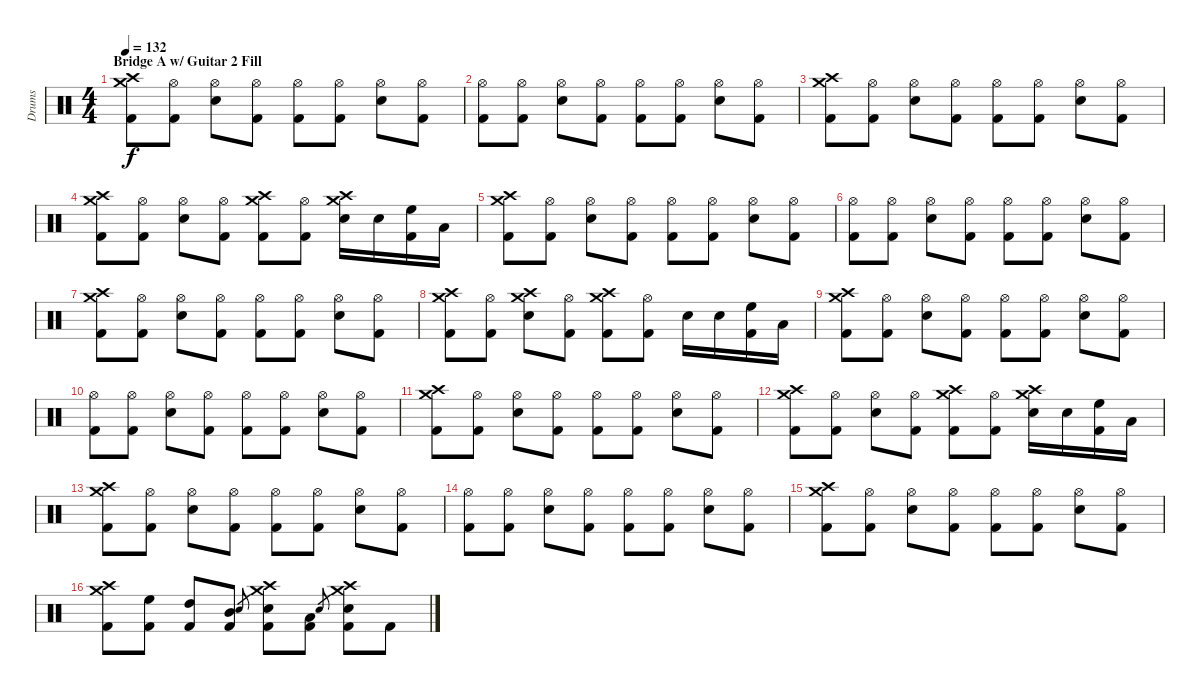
\track ("Drums" "Drums") {instrument percussion}
\staff {score}
\articulation defaults
\ts (4 4)
\section ("" "Bridge A w/ Guitar 2 Fill")
\tempo 132
\clef neutral
\ks c
("Crash medium (hit)" "Crash high (hit)" "Kick (hit) 2").8{dy f} ("Hi-Hat (open)" "Kick (hit) 2").8 ("Hi-Hat (open)" "Electric Snare (hit)").8 ("Hi-Hat (open)" "Kick (hit) 2").8 ("Hi-Hat (open)" "Kick (hit) 2").8 ("Hi-Hat (open)" "Kick (hit) 2").8 ("Hi-Hat (open)" "Electric Snare (hit)").8 ("Hi-Hat (open)" "Kick (hit) 2").8 |
("Hi-Hat (open)" "Kick (hit) 2").8 ("Hi-Hat (open)" "Kick (hit) 2").8 ("Hi-Hat (open)" "Electric Snare (hit)").8 ("Hi-Hat (open)" "Kick (hit) 2").8 ("Hi-Hat (open)" "Kick (hit) 2").8 ("Hi-Hat (open)" "Kick (hit) 2").8 ("Hi-Hat (open)" "Electric Snare (hit)").8 ("Hi-Hat (open)" "Kick (hit) 2").8 |
("Crash medium (hit)" "Crash high (hit)" "Kick (hit) 2").8 ("Hi-Hat (open)" "Kick (hit) 2").8 ("Hi-Hat (open)" "Electric Snare (hit)").8 ("Hi-Hat (open)" "Kick (hit) 2").8 ("Hi-Hat (open)" "Kick (hit) 2").8 ("Hi-Hat (open)" "Kick (hit) 2").8 ("Hi-Hat (open)" "Electric Snare (hit)").8 ("Hi-Hat (open)" "Kick (hit) 2").8 |
("Crash medium (hit)" "Crash high (hit)" "Kick (hit) 2").8 ("Hi-Hat (open)" "Kick (hit) 2").8 ("Hi-Hat (open)" "Electric Snare (hit)").8 ("Hi-Hat (open)" "Kick (hit) 2").8 ("Crash medium (hit)" "Crash high (hit)" "Kick (hit) 2").8 ("Hi-Hat (open)" "Kick (hit) 2").8 ("Crash medium (hit)" "Crash high (hit)" "Electric Snare (hit)").16 "Electric Snare (hit)".16 ("High Floor Tom (hit)" "Kick (hit) 2").16 "Low Tom (hit)".16 |
("Crash medium (hit)" "Crash high (hit)" "Kick (hit) 2").8 ("Hi-Hat (open)" "Kick (hit) 2").8 ("Hi-Hat (open)" "Electric Snare (hit)").8 ("Hi-Hat (open)" "Kick (hit) 2").8 ("Hi-Hat (open)" "Kick (hit) 2").8 ("Hi-Hat (open)" "Kick (hit) 2").8 ("Hi-Hat (open)" "Electric Snare (hit)").8 ("Hi-Hat (open)" "Kick (hit) 2").8 |
("Hi-Hat (open)" "Kick (hit) 2").8 ("Hi-Hat (open)" "Kick (hit) 2").8 ("Hi-Hat (open)" "Electric Snare (hit)").8 ("Hi-Hat (open)" "Kick (hit) 2").8 ("Hi-Hat (open)" "Kick (hit) 2").8 ("Hi-Hat (open)" "Kick (hit) 2").8 ("Hi-Hat (open)" "Electric Snare (hit)").8 ("Hi-Hat (open)" "Kick (hit) 2").8 |
("Crash medium (hit)" "Crash high (hit)" "Kick (hit) 2").8 ("Hi-Hat (open)" "Kick (hit) 2").8 ("Hi-Hat (open)" "Electric Snare (hit)").8 ("Hi-Hat (open)" "Kick (hit) 2").8 ("Hi-Hat (open)" "Kick (hit) 2").8 ("Hi-Hat (open)" "Kick (hit) 2").8 ("Hi-Hat (open)" "Electric Snare (hit)").8 ("Hi-Hat (open)" "Kick (hit) 2").8 |
("Crash medium (hit)" "Crash high (hit)" "Kick (hit) 2").8 ("Hi-Hat (open)" "Kick (hit) 2").8 ("Crash medium (hit)" "Crash high (hit)" "Electric Snare (hit)").8 ("Hi-Hat (open)" "Kick (hit) 2").8 ("Crash medium (hit)" "Crash high (hit)" "Kick (hit) 2").8 ("Hi-Hat (open)" "Kick (hit) 2").8 "Electric Snare (hit)".16 "Electric Snare (hit)".16 ("High Floor Tom (hit)" "Kick (hit) 2").16 "Low Tom (hit)".16 |
("Crash medium (hit)" "Crash high (hit)" "Kick (hit) 2").8 ("Hi-Hat (open)" "Kick (hit) 2").8 ("Hi-Hat (open)" "Electric Snare (hit)").8 ("Hi-Hat (open)" "Kick (hit) 2").8 ("Hi-Hat (open)" "Kick (hit) 2").8 ("Hi-Hat (open)" "Kick (hit) 2").8 ("Hi-Hat (open)" "Electric Snare (hit)").8 ("Hi-Hat (open)" "Kick (hit) 2").8 |
("Hi-Hat (open)" "Kick (hit) 2").8 ("Hi-Hat (open)" "Kick (hit) 2").8 ("Hi-Hat (open)" "Electric Snare (hit)").8 ("Hi-Hat (open)" "Kick (hit) 2").8 ("Hi-Hat (open)" "Kick (hit) 2").8 ("Hi-Hat (open)" "Kick (hit) 2").8 ("Hi-Hat (open)" "Electric Snare (hit)").8 ("Hi-Hat (open)" "Kick (hit) 2").8 |
("Crash medium (hit)" "Crash high (hit)" "Kick (hit) 2").8 ("Hi-Hat (open)" "Kick (hit) 2").8 ("Hi-Hat (open)" "Electric Snare (hit)").8 ("Hi-Hat (open)" "Kick (hit) 2").8 ("Hi-Hat (open)" "Kick (hit) 2").8 ("Hi-Hat (open)" "Kick (hit) 2").8 ("Hi-Hat (open)" "Electric Snare (hit)").8 ("Hi-Hat (open)" "Kick (hit) 2").8 |
("Crash medium (hit)" "Crash high (hit)" "Kick (hit) 2").8 ("Hi-Hat (open)" "Kick (hit) 2").8 ("Hi-Hat (open)" "Electric Snare (hit)").8 ("Hi-Hat (open)" "Kick (hit) 2").8 ("Crash medium (hit)" "Crash high (hit)" "Kick (hit) 2").8 ("Hi-Hat (open)" "Kick (hit) 2").8 ("Crash medium (hit)" "Crash high (hit)" "Electric Snare (hit)").16 "Electric Snare (hit)".16 ("High Floor Tom (hit)" "Kick (hit) 2").16 "Low Tom (hit)".16 |
("Crash medium (hit)" "Crash high (hit)" "Kick (hit) 2").8 ("Hi-Hat (open)" "Kick (hit) 2").8 ("Hi-Hat (open)" "Electric Snare (hit)").8 ("Hi-Hat (open)" "Kick (hit) 2").8 ("Hi-Hat (open)" "Kick (hit) 2").8 ("Hi-Hat (open)" "Kick (hit) 2").8 ("Hi-Hat (open)" "Electric Snare (hit)").8 ("Hi-Hat (open)" "Kick (hit) 2").8 |
("Hi-Hat (open)" "Kick (hit) 2").8 ("Hi-Hat (open)" "Kick (hit) 2").8 ("Hi-Hat (open)" "Electric Snare (hit)").8 ("Hi-Hat (open)" "Kick (hit) 2").8 ("Hi-Hat (open)" "Kick (hit) 2").8 ("Hi-Hat (open)" "Kick (hit) 2").8 ("Hi-Hat (open)" "Electric Snare (hit)").8 ("Hi-Hat (open)" "Kick (hit) 2").8 |
("Crash medium (hit)" "Crash high (hit)" "Kick (hit) 2").8 ("Hi-Hat (open)" "Kick (hit) 2").8 ("Hi-Hat (open)" "Electric Snare (hit)").8 ("Hi-Hat (open)" "Kick (hit) 2").8 ("Hi-Hat (open)" "Kick (hit) 2").8 ("Hi-Hat (open)" "Kick (hit) 2").8 ("Hi-Hat (open)" "Electric Snare (hit)").8 ("Hi-Hat (open)" "Kick (hit) 2").8 |
("Crash medium (hit)" "Crash high (hit)" "Kick (hit) 2").8 ("High Floor Tom (hit)" "Kick (hit) 2").8 ("High Tom (hit)" "Kick (hit) 2").8 ("Mid Tom (hit)" "Kick (hit) 2").8 "Electric Snare (hit)".8{gr} ("Crash medium (hit)" "Crash high (hit)" "Electric Snare (hit)" "Kick (hit) 2").8 ("Low Tom (hit)" "Kick (hit) 2").8 "Electric Snare (hit)".8{gr} ("Crash medium (hit)" "Crash high (hit)" "Electric Snare (hit)" "Kick (hit) 2").8 "Kick (hit) 2".8
